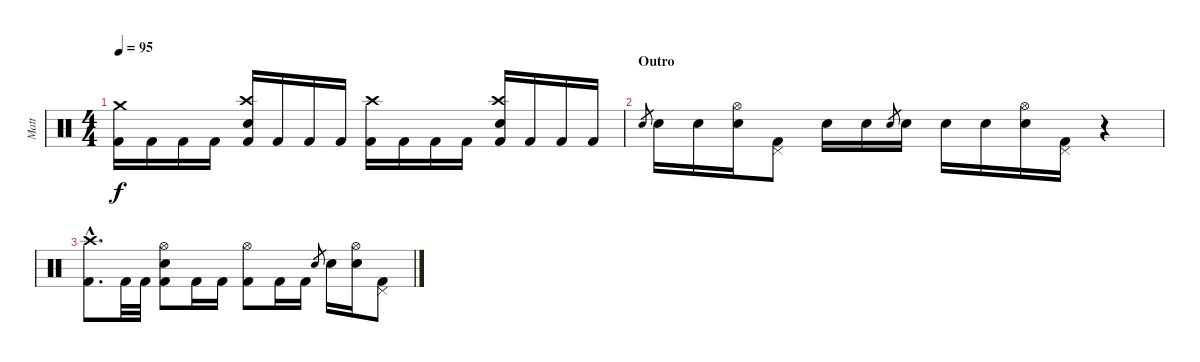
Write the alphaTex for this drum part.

\track ("Matt" "Matt") {instrument percussion}
\staff {score}
\articulation defaults
\ts (4 4)
\tempo 95
\clef neutral
\ks c
("Crash medium (hit)" "Kick (hit) 2").16{dy f} "Kick (hit) 2".16 "Kick (hit) 2".16 "Kick (hit) 2".16 ("Crash high (hit)" "Electric Snare (hit)" "Kick (hit) 2").16 "Kick (hit) 2".16 "Kick (hit) 2".16 "Kick (hit) 2".16 ("Crash high (hit)" "Kick (hit) 2").16 "Kick (hit) 2".16 "Kick (hit) 2".16 "Kick (hit) 2".16 ("Crash high (hit)" "Electric Snare (hit)" "Kick (hit) 2").16 "Kick (hit) 2".16 "Kick (hit) 2".16 "Kick (hit) 2".16 |
\section ("" "Outro")
"Electric Snare (hit)".8{gr} "Electric Snare (hit)".16 "Electric Snare (hit)".16 ("Hi-Hat (open)" "Electric Snare (hit)").16 ("Pedal Hi-Hat (hit)" "Kick (hit) 2").8 "Electric Snare (hit)".16 "Electric Snare (hit)".16 "Electric Snare (hit)".8{gr} "Electric Snare (hit)".16 "Electric Snare (hit)".16 "Electric Snare (hit)".16 ("Hi-Hat (open)" "Electric Snare (hit)").16 ("Pedal Hi-Hat (hit)" "Kick (hit) 2").16 r.4 |
("Crash high (hit)"{hac} "Kick (hit) 2"{hac}).8{d} "Kick (hit) 2".32 "Kick (hit) 2".32 ("Hi-Hat (open)" "Electric Snare (hit)" "Kick (hit) 2").8 "Kick (hit) 2".16 "Kick (hit) 2".16 ("Hi-Hat (open)" "Kick (hit) 2").8 "Kick (hit) 2".16 "Kick (hit) 2".16 "Electric Snare (hit)".8{gr} "Electric Snare (hit)".16 ("Hi-Hat (open)" "Electric Snare (hit)").16 ("Pedal Hi-Hat (hit)" "Kick (hit) 2").8
